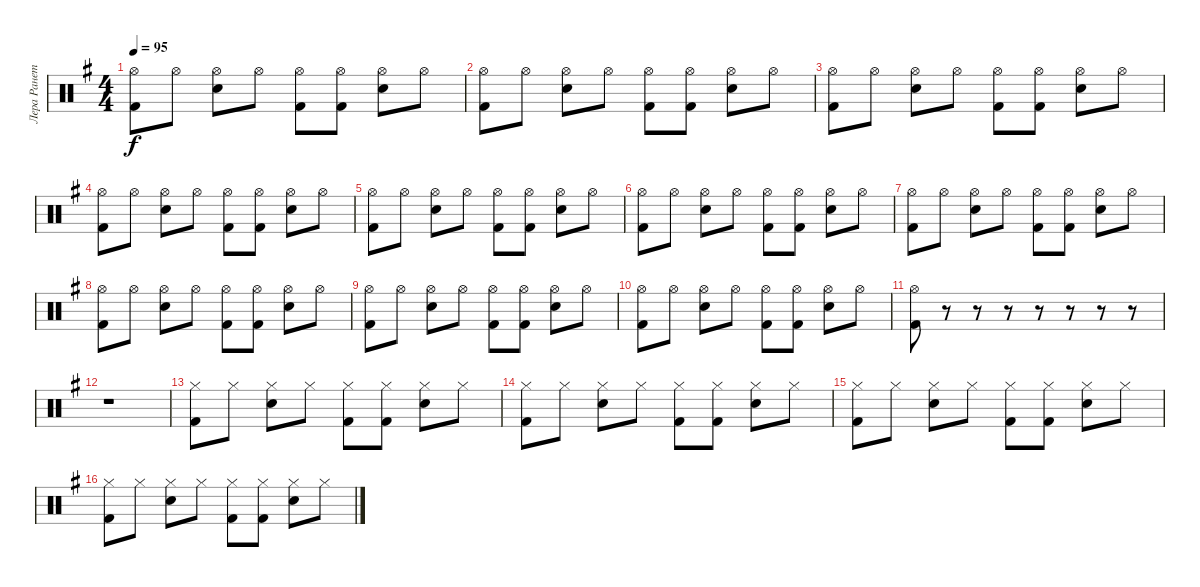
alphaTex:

\track ("Лера Ранетка" "Лера Ранет") {instrument percussion}
\staff {score}
\articulation defaults
\ts (4 4)
\tempo 95
\clef neutral
\ks eminor
("Hi-Hat (open)" "Kick (hit) 2").8{dy f} "Hi-Hat (open)".8 ("Hi-Hat (open)" "Electric Snare (hit)").8 "Hi-Hat (open)".8 ("Hi-Hat (open)" "Kick (hit) 2").8 ("Hi-Hat (open)" "Kick (hit) 2").8 ("Hi-Hat (open)" "Electric Snare (hit)").8 "Hi-Hat (open)".8 |
("Hi-Hat (open)" "Kick (hit) 2").8 "Hi-Hat (open)".8 ("Hi-Hat (open)" "Electric Snare (hit)").8 "Hi-Hat (open)".8 ("Hi-Hat (open)" "Kick (hit) 2").8 ("Hi-Hat (open)" "Kick (hit) 2").8 ("Hi-Hat (open)" "Electric Snare (hit)").8 "Hi-Hat (open)".8 |
("Hi-Hat (open)" "Kick (hit) 2").8 "Hi-Hat (open)".8 ("Hi-Hat (open)" "Electric Snare (hit)").8 "Hi-Hat (open)".8 ("Hi-Hat (open)" "Kick (hit) 2").8 ("Hi-Hat (open)" "Kick (hit) 2").8 ("Hi-Hat (open)" "Electric Snare (hit)").8 "Hi-Hat (open)".8 |
("Hi-Hat (open)" "Kick (hit) 2").8 "Hi-Hat (open)".8 ("Hi-Hat (open)" "Electric Snare (hit)").8 "Hi-Hat (open)".8 ("Hi-Hat (open)" "Kick (hit) 2").8 ("Hi-Hat (open)" "Kick (hit) 2").8 ("Hi-Hat (open)" "Electric Snare (hit)").8 "Hi-Hat (open)".8 |
("Hi-Hat (open)" "Kick (hit) 2").8 "Hi-Hat (open)".8 ("Hi-Hat (open)" "Electric Snare (hit)").8 "Hi-Hat (open)".8 ("Hi-Hat (open)" "Kick (hit) 2").8 ("Hi-Hat (open)" "Kick (hit) 2").8 ("Hi-Hat (open)" "Electric Snare (hit)").8 "Hi-Hat (open)".8 |
("Hi-Hat (open)" "Kick (hit) 2").8 "Hi-Hat (open)".8 ("Hi-Hat (open)" "Electric Snare (hit)").8 "Hi-Hat (open)".8 ("Hi-Hat (open)" "Kick (hit) 2").8 ("Hi-Hat (open)" "Kick (hit) 2").8 ("Hi-Hat (open)" "Electric Snare (hit)").8 "Hi-Hat (open)".8 |
("Hi-Hat (open)" "Kick (hit) 2").8 "Hi-Hat (open)".8 ("Hi-Hat (open)" "Electric Snare (hit)").8 "Hi-Hat (open)".8 ("Hi-Hat (open)" "Kick (hit) 2").8 ("Hi-Hat (open)" "Kick (hit) 2").8 ("Hi-Hat (open)" "Electric Snare (hit)").8 "Hi-Hat (open)".8 |
("Hi-Hat (open)" "Kick (hit) 2").8 "Hi-Hat (open)".8 ("Hi-Hat (open)" "Electric Snare (hit)").8 "Hi-Hat (open)".8 ("Hi-Hat (open)" "Kick (hit) 2").8 ("Hi-Hat (open)" "Kick (hit) 2").8 ("Hi-Hat (open)" "Electric Snare (hit)").8 "Hi-Hat (open)".8 |
("Hi-Hat (open)" "Kick (hit) 2").8 "Hi-Hat (open)".8 ("Hi-Hat (open)" "Electric Snare (hit)").8 "Hi-Hat (open)".8 ("Hi-Hat (open)" "Kick (hit) 2").8 ("Hi-Hat (open)" "Kick (hit) 2").8 ("Hi-Hat (open)" "Electric Snare (hit)").8 "Hi-Hat (open)".8 |
("Hi-Hat (open)" "Kick (hit) 2").8 "Hi-Hat (open)".8 ("Hi-Hat (open)" "Electric Snare (hit)").8 "Hi-Hat (open)".8 ("Hi-Hat (open)" "Kick (hit) 2").8 ("Hi-Hat (open)" "Kick (hit) 2").8 ("Hi-Hat (open)" "Electric Snare (hit)").8 "Hi-Hat (open)".8 |
("Hi-Hat (open)" "Kick (hit) 2").8 r.8 r.8 r.8 r.8 r.8 r.8 r.8 |
r.1 |
("Hi-Hat (closed)" "Kick (hit) 2").8 "Hi-Hat (closed)".8 ("Hi-Hat (closed)" "Electric Snare (hit)").8 "Hi-Hat (closed)".8 ("Hi-Hat (closed)" "Kick (hit) 2").8 ("Hi-Hat (closed)" "Kick (hit) 2").8 ("Hi-Hat (closed)" "Electric Snare (hit)").8 "Hi-Hat (closed)".8 |
("Hi-Hat (closed)" "Kick (hit) 2").8 "Hi-Hat (closed)".8 ("Hi-Hat (closed)" "Electric Snare (hit)").8 "Hi-Hat (closed)".8 ("Hi-Hat (closed)" "Kick (hit) 2").8 ("Hi-Hat (closed)" "Kick (hit) 2").8 ("Hi-Hat (closed)" "Electric Snare (hit)").8 "Hi-Hat (closed)".8 |
("Hi-Hat (closed)" "Kick (hit) 2").8 "Hi-Hat (closed)".8 ("Hi-Hat (closed)" "Electric Snare (hit)").8 "Hi-Hat (closed)".8 ("Hi-Hat (closed)" "Kick (hit) 2").8 ("Hi-Hat (closed)" "Kick (hit) 2").8 ("Hi-Hat (closed)" "Electric Snare (hit)").8 "Hi-Hat (closed)".8 |
("Hi-Hat (closed)" "Kick (hit) 2").8 "Hi-Hat (closed)".8 ("Hi-Hat (closed)" "Electric Snare (hit)").8 "Hi-Hat (closed)".8 ("Hi-Hat (closed)" "Kick (hit) 2").8 ("Hi-Hat (closed)" "Kick (hit) 2").8 ("Hi-Hat (closed)" "Electric Snare (hit)").8 "Hi-Hat (closed)".8
